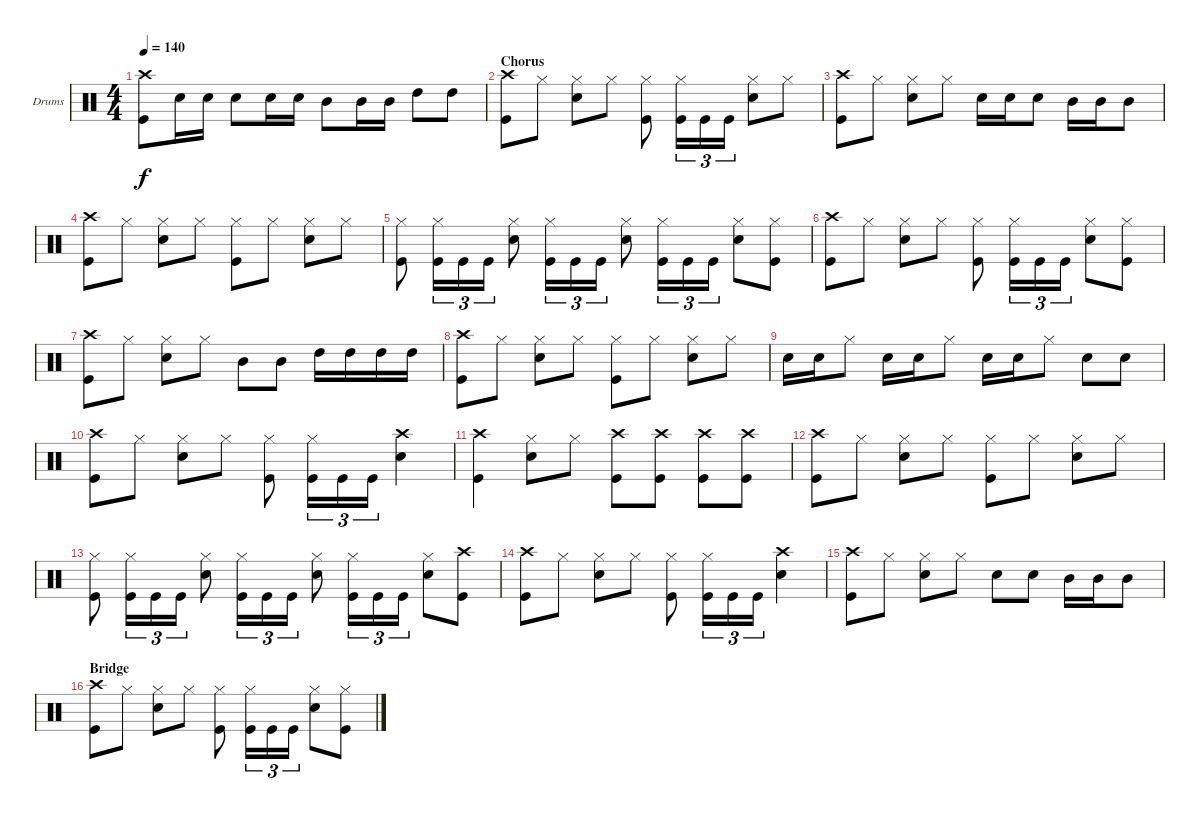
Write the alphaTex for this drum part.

\defaultSystemsLayout 4
\bracketExtendMode groupsimilarinstruments
\firstSystemTrackNameOrientation horizontal
\otherSystemsTrackNameOrientation horizontal
\track ("Drums" "Drums") {instrument percussion}
\staff {score}
\articulation defaults
\ts (4 4)
\tempo 140
\clef neutral
\ks c
("Crash high (hit)" "Kick (hit)").8{dy f} "Snare (hit) 2".16 "Snare (hit) 2".16 "Snare (hit) 2".8 "Snare (hit) 2".16 "Snare (hit) 2".16 "Mid Tom (hit)".8 "Mid Tom (hit)".16 "Mid Tom (hit)".16 "High Tom (hit)".8 "High Tom (hit)".8 |
\section ("" "Chorus")
("Crash high (hit)" "Kick (hit)").8 "Hi-Hat (closed)".8 ("Snare (hit) 2" "Hi-Hat (closed)").8 "Hi-Hat (closed)".8 ("Kick (hit)" "Hi-Hat (closed)").8 ("Kick (hit)" "Hi-Hat (closed)").16{tu (3 2)} "Kick (hit)".16{tu (3 2)} "Kick (hit)".16{tu (3 2)} ("Snare (hit) 2" "Hi-Hat (closed)").8 "Hi-Hat (closed)".8 |
("Kick (hit)" "Crash high (hit)").8 "Hi-Hat (closed)".8 ("Snare (hit) 2" "Hi-Hat (closed)").8 "Hi-Hat (closed)".8 "Snare (hit) 2".16 "Snare (hit) 2".16 "Snare (hit) 2".8 "Mid Tom (hit)".16 "Mid Tom (hit)".16 "Mid Tom (hit)".8 |
("Crash high (hit)" "Kick (hit)").8 "Hi-Hat (closed)".8 ("Snare (hit) 2" "Hi-Hat (closed)").8 "Hi-Hat (closed)".8 ("Hi-Hat (closed)" "Kick (hit)").8 "Hi-Hat (closed)".8 ("Snare (hit) 2" "Hi-Hat (closed)").8 "Hi-Hat (closed)".8 |
("Kick (hit)" "Hi-Hat (closed)").8 ("Kick (hit)" "Hi-Hat (closed)").16{tu (3 2)} "Kick (hit)".16{tu (3 2)} "Kick (hit)".16{tu (3 2)} ("Snare (hit) 2" "Hi-Hat (closed)").8 ("Kick (hit)" "Hi-Hat (closed)").16{tu (3 2)} "Kick (hit)".16{tu (3 2)} "Kick (hit)".16{tu (3 2)} ("Snare (hit) 2" "Hi-Hat (closed)").8 ("Kick (hit)" "Hi-Hat (closed)").16{tu (3 2)} "Kick (hit)".16{tu (3 2)} "Kick (hit)".16{tu (3 2)} ("Snare (hit) 2" "Hi-Hat (closed)").8 ("Kick (hit)" "Hi-Hat (closed)").8 |
("Crash high (hit)" "Kick (hit)").8 "Hi-Hat (closed)".8 ("Snare (hit) 2" "Hi-Hat (closed)").8 "Hi-Hat (closed)".8 ("Hi-Hat (closed)" "Kick (hit)").8 ("Hi-Hat (closed)" "Kick (hit)").16{tu (3 2)} "Kick (hit)".16{tu (3 2)} "Kick (hit)".16{tu (3 2)} ("Snare (hit) 2" "Hi-Hat (closed)").8 ("Hi-Hat (closed)" "Kick (hit)").8 |
("Kick (hit)" "Crash high (hit)").8 "Hi-Hat (closed)".8 ("Snare (hit) 2" "Hi-Hat (closed)").8 "Hi-Hat (closed)".8 "Mid Tom (hit)".8 "Mid Tom (hit)".8 "High Tom (hit)".16 "High Tom (hit)".16 "High Tom (hit)".16 "High Tom (hit)".16 |
("Crash high (hit)" "Kick (hit)").8 "Hi-Hat (closed)".8 ("Snare (hit) 2" "Hi-Hat (closed)").8 "Hi-Hat (closed)".8 ("Hi-Hat (closed)" "Kick (hit)").8 "Hi-Hat (closed)".8 ("Snare (hit) 2" "Hi-Hat (closed)").8 "Hi-Hat (closed)".8 |
"Snare (hit) 2".16 "Snare (hit) 2".16 "Hi-Hat (closed)".8 "Snare (hit) 2".16 "Snare (hit) 2".16 "Hi-Hat (closed)".8 "Snare (hit) 2".16 "Snare (hit) 2".16 "Hi-Hat (closed)".8 "Snare (hit) 2".8 "Snare (hit) 2".8 |
("Crash high (hit)" "Kick (hit)").8 "Hi-Hat (closed)".8 ("Snare (hit) 2" "Hi-Hat (closed)").8 "Hi-Hat (closed)".8 ("Hi-Hat (closed)" "Kick (hit)").8 ("Hi-Hat (closed)" "Kick (hit)").16{tu (3 2)} "Kick (hit)".16{tu (3 2)} "Kick (hit)".16{tu (3 2)} ("Snare (hit) 2" "Crash high (hit)").4 |
("Kick (hit)" "Crash high (hit)").4 ("Snare (hit) 2" "Hi-Hat (closed)").8 "Hi-Hat (closed)".8 ("Kick (hit)" "Crash high (hit)").8 ("Kick (hit)" "Crash high (hit)").8 ("Kick (hit)" "Crash high (hit)").8 ("Kick (hit)" "Crash high (hit)").8 |
("Crash high (hit)" "Kick (hit)").8 "Hi-Hat (closed)".8 ("Snare (hit) 2" "Hi-Hat (closed)").8 "Hi-Hat (closed)".8 ("Hi-Hat (closed)" "Kick (hit)").8 "Hi-Hat (closed)".8 ("Snare (hit) 2" "Hi-Hat (closed)").8 "Hi-Hat (closed)".8 |
("Kick (hit)" "Hi-Hat (closed)").8 ("Kick (hit)" "Hi-Hat (closed)").16{tu (3 2)} "Kick (hit)".16{tu (3 2)} "Kick (hit)".16{tu (3 2)} ("Snare (hit) 2" "Hi-Hat (closed)").8 ("Kick (hit)" "Hi-Hat (closed)").16{tu (3 2)} "Kick (hit)".16{tu (3 2)} "Kick (hit)".16{tu (3 2)} ("Snare (hit) 2" "Hi-Hat (closed)").8 ("Kick (hit)" "Hi-Hat (closed)").16{tu (3 2)} "Kick (hit)".16{tu (3 2)} "Kick (hit)".16{tu (3 2)} ("Snare (hit) 2" "Hi-Hat (closed)").8 ("Crash high (hit)" "Kick (hit)").8 |
("Crash high (hit)" "Kick (hit)").8 "Hi-Hat (closed)".8 ("Snare (hit) 2" "Hi-Hat (closed)").8 "Hi-Hat (closed)".8 ("Hi-Hat (closed)" "Kick (hit)").8 ("Hi-Hat (closed)" "Kick (hit)").16{tu (3 2)} "Kick (hit)".16{tu (3 2)} "Kick (hit)".16{tu (3 2)} ("Snare (hit) 2" "Crash high (hit)").4 |
("Kick (hit)" "Crash high (hit)").8 "Hi-Hat (closed)".8 ("Snare (hit) 2" "Hi-Hat (closed)").8 "Hi-Hat (closed)".8 "Snare (hit) 2".8 "Snare (hit) 2".8 "Mid Tom (hit)".16 "Mid Tom (hit)".16 "Mid Tom (hit)".8 |
\section ("" "Bridge")
("Crash high (hit)" "Kick (hit)").8 "Hi-Hat (closed)".8 ("Snare (hit) 2" "Hi-Hat (closed)").8 "Hi-Hat (closed)".8 ("Kick (hit)" "Hi-Hat (closed)").8 ("Kick (hit)" "Hi-Hat (closed)").16{tu (3 2)} "Kick (hit)".16{tu (3 2)} "Kick (hit)".16{tu (3 2)} ("Snare (hit) 2" "Hi-Hat (closed)").8 ("Kick (hit)" "Hi-Hat (closed)").8
